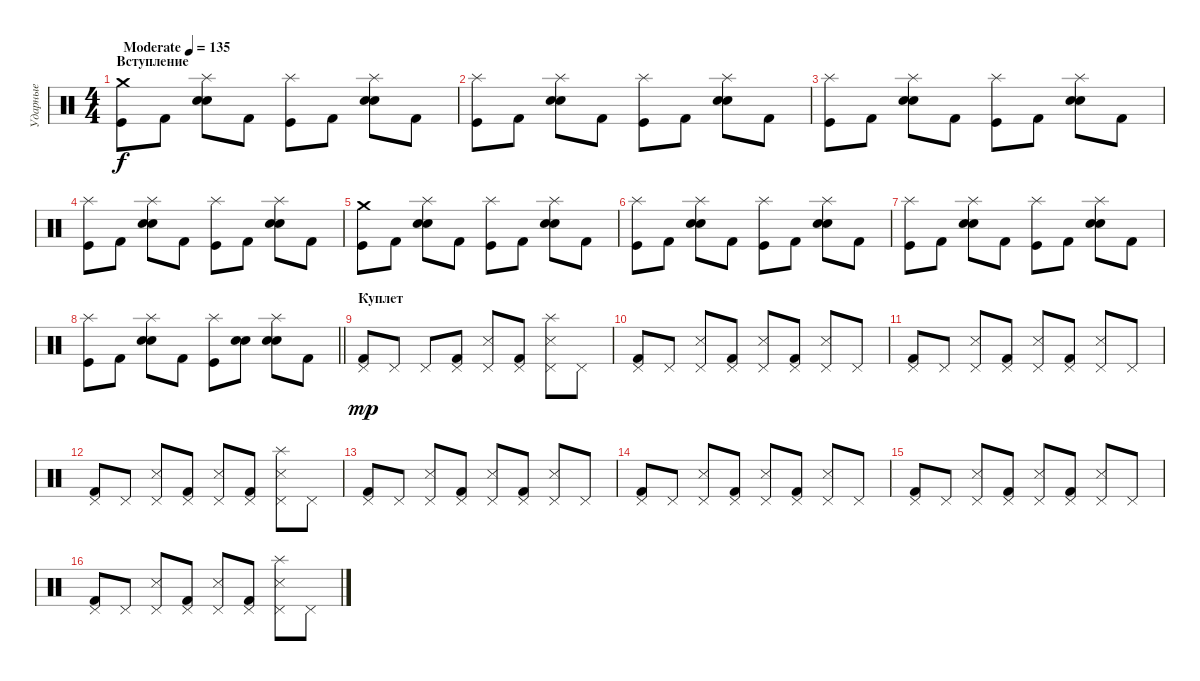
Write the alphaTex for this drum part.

\track ("Ударные" "Ударные") {instrument percussion}
\staff {score}
\articulation defaults
\ts (4 4)
\section ("" "Вступление")
\tempo (135 "Moderate")
\clef neutral
\ks c
("Crash medium (hit)" "Kick (hit)").8{dy f} "Kick (hit) 2".8 ("Splash (hit)" "Electric Snare (hit)" "Snare (hit) 2").8 "Kick (hit) 2".8 ("Splash (hit)" "Kick (hit)").8 "Kick (hit) 2".8 ("Splash (hit)" "Electric Snare (hit)" "Snare (hit) 2").8 "Kick (hit) 2".8 |
("Splash (hit)" "Kick (hit)").8 "Kick (hit) 2".8 ("Splash (hit)" "Electric Snare (hit)" "Snare (hit) 2").8 "Kick (hit) 2".8 ("Splash (hit)" "Kick (hit)").8 "Kick (hit) 2".8 ("Splash (hit)" "Electric Snare (hit)" "Snare (hit) 2").8 "Kick (hit) 2".8 |
("Splash (hit)" "Kick (hit)").8 "Kick (hit) 2".8 ("Splash (hit)" "Electric Snare (hit)" "Snare (hit) 2").8 "Kick (hit) 2".8 ("Splash (hit)" "Kick (hit)").8 "Kick (hit) 2".8 ("Splash (hit)" "Electric Snare (hit)" "Snare (hit) 2").8 "Kick (hit) 2".8 |
("Splash (hit)" "Kick (hit)").8 "Kick (hit) 2".8 ("Splash (hit)" "Electric Snare (hit)" "Snare (hit) 2").8 "Kick (hit) 2".8 ("Splash (hit)" "Kick (hit)").8 "Kick (hit) 2".8 ("Splash (hit)" "Electric Snare (hit)" "Snare (hit) 2").8 "Kick (hit) 2".8 |
("Crash medium (hit)" "Kick (hit)").8 "Kick (hit) 2".8 ("Splash (hit)" "Electric Snare (hit)" "Snare (hit) 2").8 "Kick (hit) 2".8 ("Splash (hit)" "Kick (hit)").8 "Kick (hit) 2".8 ("Splash (hit)" "Electric Snare (hit)" "Snare (hit) 2").8 "Kick (hit) 2".8 |
("Splash (hit)" "Kick (hit)").8 "Kick (hit) 2".8 ("Splash (hit)" "Electric Snare (hit)" "Snare (hit) 2").8 "Kick (hit) 2".8 ("Splash (hit)" "Kick (hit)").8 "Kick (hit) 2".8 ("Splash (hit)" "Electric Snare (hit)" "Snare (hit) 2").8 "Kick (hit) 2".8 |
("Splash (hit)" "Kick (hit)").8 "Kick (hit) 2".8 ("Splash (hit)" "Electric Snare (hit)" "Snare (hit) 2").8 "Kick (hit) 2".8 ("Splash (hit)" "Kick (hit)").8 "Kick (hit) 2".8 ("Splash (hit)" "Electric Snare (hit)" "Snare (hit) 2").8 "Kick (hit) 2".8 |
\barLineRight lightlight
("Splash (hit)" "Kick (hit)").8 "Kick (hit) 2".8 ("Splash (hit)" "Electric Snare (hit)" "Snare (hit) 2").8 "Kick (hit) 2".8 ("Splash (hit)" "Kick (hit)").8 ("Electric Snare (hit)" "Snare (hit) 2").8 ("Splash (hit)" "Electric Snare (hit)" "Snare (hit) 2").8 "Kick (hit) 2".8 |
\section ("" "Куплет")
("Pedal Hi-Hat (hit)" "Kick (hit) 2").8{dy mp} "Pedal Hi-Hat (hit)".8 "Pedal Hi-Hat (hit)".8 ("Pedal Hi-Hat (hit)" "Kick (hit) 2").8 ("Metronome (hit)" "Pedal Hi-Hat (hit)").8 ("Pedal Hi-Hat (hit)" "Kick (hit) 2").8 ("Splash (hit)" "Metronome (hit)" "Pedal Hi-Hat (hit)").8 "Pedal Hi-Hat (hit)".8 |
("Pedal Hi-Hat (hit)" "Kick (hit) 2").8 "Pedal Hi-Hat (hit)".8 ("Metronome (hit)" "Pedal Hi-Hat (hit)").8 ("Pedal Hi-Hat (hit)" "Kick (hit) 2").8 ("Metronome (hit)" "Pedal Hi-Hat (hit)").8 ("Pedal Hi-Hat (hit)" "Kick (hit) 2").8 ("Metronome (hit)" "Pedal Hi-Hat (hit)").8 "Pedal Hi-Hat (hit)".8 |
("Pedal Hi-Hat (hit)" "Kick (hit) 2").8 "Pedal Hi-Hat (hit)".8 ("Metronome (hit)" "Pedal Hi-Hat (hit)").8 ("Pedal Hi-Hat (hit)" "Kick (hit) 2").8 ("Metronome (hit)" "Pedal Hi-Hat (hit)").8 ("Pedal Hi-Hat (hit)" "Kick (hit) 2").8 ("Metronome (hit)" "Pedal Hi-Hat (hit)").8 "Pedal Hi-Hat (hit)".8 |
("Pedal Hi-Hat (hit)" "Kick (hit) 2").8 "Pedal Hi-Hat (hit)".8 ("Metronome (hit)" "Pedal Hi-Hat (hit)").8 ("Pedal Hi-Hat (hit)" "Kick (hit) 2").8 ("Metronome (hit)" "Pedal Hi-Hat (hit)").8 ("Pedal Hi-Hat (hit)" "Kick (hit) 2").8 ("Splash (hit)" "Metronome (hit)" "Pedal Hi-Hat (hit)").8 "Pedal Hi-Hat (hit)".8 |
("Pedal Hi-Hat (hit)" "Kick (hit) 2").8 "Pedal Hi-Hat (hit)".8 ("Metronome (hit)" "Pedal Hi-Hat (hit)").8 ("Pedal Hi-Hat (hit)" "Kick (hit) 2").8 ("Metronome (hit)" "Pedal Hi-Hat (hit)").8 ("Pedal Hi-Hat (hit)" "Kick (hit) 2").8 ("Metronome (hit)" "Pedal Hi-Hat (hit)").8 "Pedal Hi-Hat (hit)".8 |
("Pedal Hi-Hat (hit)" "Kick (hit) 2").8 "Pedal Hi-Hat (hit)".8 ("Metronome (hit)" "Pedal Hi-Hat (hit)").8 ("Pedal Hi-Hat (hit)" "Kick (hit) 2").8 ("Metronome (hit)" "Pedal Hi-Hat (hit)").8 ("Pedal Hi-Hat (hit)" "Kick (hit) 2").8 ("Metronome (hit)" "Pedal Hi-Hat (hit)").8 "Pedal Hi-Hat (hit)".8 |
("Pedal Hi-Hat (hit)" "Kick (hit) 2").8 "Pedal Hi-Hat (hit)".8 ("Metronome (hit)" "Pedal Hi-Hat (hit)").8 ("Pedal Hi-Hat (hit)" "Kick (hit) 2").8 ("Metronome (hit)" "Pedal Hi-Hat (hit)").8 ("Pedal Hi-Hat (hit)" "Kick (hit) 2").8 ("Metronome (hit)" "Pedal Hi-Hat (hit)").8 "Pedal Hi-Hat (hit)".8 |
("Pedal Hi-Hat (hit)" "Kick (hit) 2").8 "Pedal Hi-Hat (hit)".8 ("Metronome (hit)" "Pedal Hi-Hat (hit)").8 ("Pedal Hi-Hat (hit)" "Kick (hit) 2").8 ("Metronome (hit)" "Pedal Hi-Hat (hit)").8 ("Pedal Hi-Hat (hit)" "Kick (hit) 2").8 ("Splash (hit)" "Metronome (hit)" "Pedal Hi-Hat (hit)").8 "Pedal Hi-Hat (hit)".8
